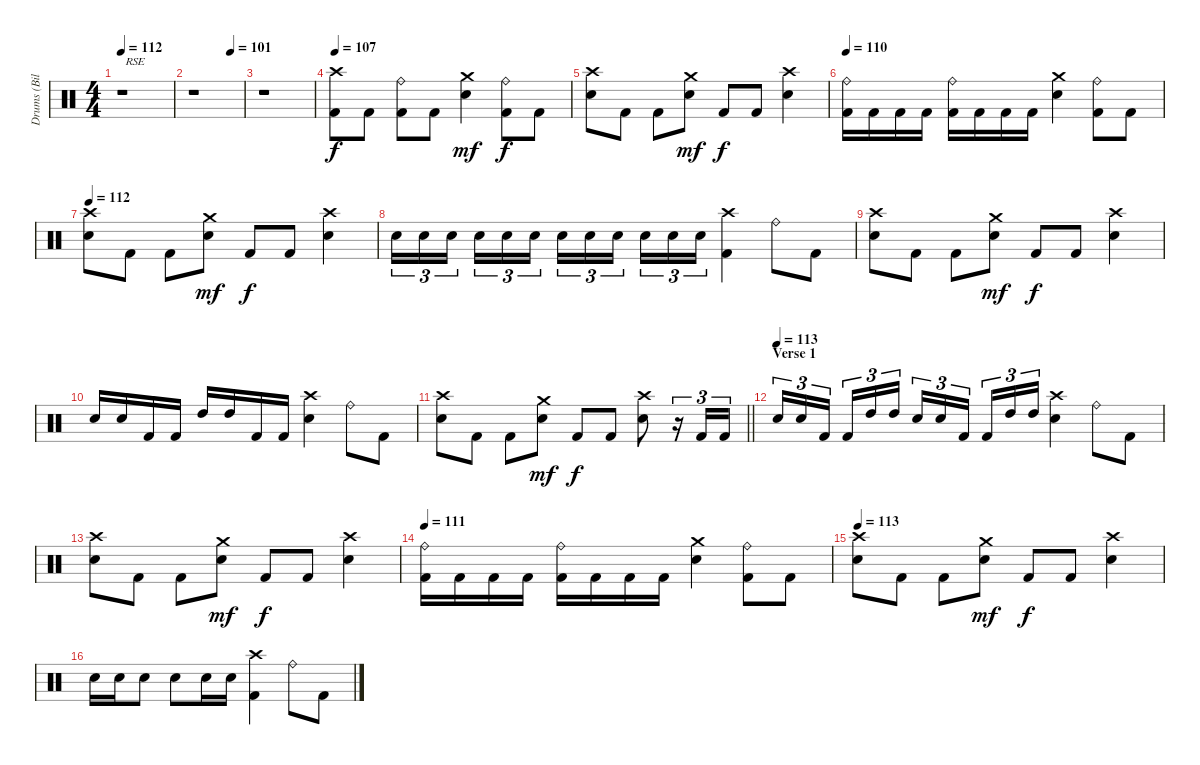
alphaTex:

\track ("Drums (Bill Andrews)" "Drums (Bil") {instrument percussion}
\staff
\articulation defaults
\ts (4 4)
\tempo 112
\clef neutral
\ks c
r.1{txt " RSE " dy f} |
\tempo (90 0.75)
\tempo (101 0.75)
r.1 |
r.1 |
\tempo 107
("Crash high (hit)" "Kick (hit) 2").8 "Kick (hit) 2".8 ("Ride (bell)" "Kick (hit) 2").8 "Kick (hit) 2".8 ("Crash medium (hit)" "Electric Snare (hit)").4{dy mf} ("Ride (bell)" "Kick (hit) 2").8{dy f} "Kick (hit) 2".8 |
("Crash high (hit)" "Electric Snare (hit)").8 "Kick (hit) 2".8 "Kick (hit) 2".8 ("Crash medium (hit)" "Electric Snare (hit)").8{dy mf} "Kick (hit) 2".8{dy f} "Kick (hit) 2".8 ("Crash high (hit)" "Electric Snare (hit)").4 |
\tempo 110
("Ride (bell)" "Kick (hit) 2").16 "Kick (hit) 2".16 "Kick (hit) 2".16 "Kick (hit) 2".16 ("Ride (bell)" "Kick (hit) 2").16 "Kick (hit) 2".16 "Kick (hit) 2".16 "Kick (hit) 2".16 ("Crash medium (hit)" "Electric Snare (hit)").4 ("Ride (bell)" "Kick (hit) 2").8 "Kick (hit) 2".8 |
\tempo 112
("Crash high (hit)" "Electric Snare (hit)").8 "Kick (hit) 2".8 "Kick (hit) 2".8 ("Crash medium (hit)" "Electric Snare (hit)").8{dy mf} "Kick (hit) 2".8{dy f} "Kick (hit) 2".8 ("Crash high (hit)" "Electric Snare (hit)").4 |
"Electric Snare (hit)".16{tu (3 2)} "Electric Snare (hit)".16{tu (3 2)} "Electric Snare (hit)".16{tu (3 2) beam splitsecondary} "Electric Snare (hit)".16{tu (3 2)} "Electric Snare (hit)".16{tu (3 2)} "Electric Snare (hit)".16{tu (3 2)} "Electric Snare (hit)".16{tu (3 2)} "Electric Snare (hit)".16{tu (3 2)} "Electric Snare (hit)".16{tu (3 2) beam splitsecondary} "Electric Snare (hit)".16{tu (3 2)} "Electric Snare (hit)".16{tu (3 2)} "Electric Snare (hit)".16{tu (3 2)} ("Crash high (hit)" "Kick (hit) 2").4 "Ride (bell)".8 "Kick (hit) 2".8 |
("Crash high (hit)" "Electric Snare (hit)").8 "Kick (hit) 2".8 "Kick (hit) 2".8 ("Crash medium (hit)" "Electric Snare (hit)").8{dy mf} "Kick (hit) 2".8{dy f} "Kick (hit) 2".8 ("Crash high (hit)" "Electric Snare (hit)").4 |
"Electric Snare (hit)".16 "Electric Snare (hit)".16 "Kick (hit) 2".16 "Kick (hit) 2".16 "High Tom (hit)".16 "High Tom (hit)".16 "Kick (hit) 2".16 "Kick (hit) 2".16 ("Crash high (hit)" "Electric Snare (hit)").4 "Ride (bell)".8 "Kick (hit) 2".8 |
\barLineRight lightlight
("Crash high (hit)" "Electric Snare (hit)").8 "Kick (hit) 2".8 "Kick (hit) 2".8 ("Crash medium (hit)" "Electric Snare (hit)").8{dy mf} "Kick (hit) 2".8{dy f} "Kick (hit) 2".8 ("Crash high (hit)" "Electric Snare (hit)").8 r.16{tu (3 2)} "Kick (hit) 2".16{tu (3 2)} "Kick (hit) 2".16{tu (3 2)} |
\section ("" "Verse 1")
\tempo (113)
"Electric Snare (hit)".16{tu (3 2)} "Electric Snare (hit)".16{tu (3 2)} "Kick (hit) 2".16{tu (3 2) beam splitsecondary} "Kick (hit) 2".16{tu (3 2)} "High Tom (hit)".16{tu (3 2)} "High Tom (hit)".16{tu (3 2)} "Electric Snare (hit)".16{tu (3 2)} "Electric Snare (hit)".16{tu (3 2)} "Kick (hit) 2".16{tu (3 2) beam splitsecondary} "Kick (hit) 2".16{tu (3 2)} "High Tom (hit)".16{tu (3 2)} "High Tom (hit)".16{tu (3 2)} ("Crash high (hit)" "Electric Snare (hit)").4 "Ride (bell)".8 "Kick (hit) 2".8 |
("Crash high (hit)" "Electric Snare (hit)").8 "Kick (hit) 2".8 "Kick (hit) 2".8 ("Crash medium (hit)" "Electric Snare (hit)").8{dy mf} "Kick (hit) 2".8{dy f} "Kick (hit) 2".8 ("Crash high (hit)" "Electric Snare (hit)").4 |
\tempo 111
("Ride (bell)" "Kick (hit) 2").16 "Kick (hit) 2".16 "Kick (hit) 2".16 "Kick (hit) 2".16 ("Ride (bell)" "Kick (hit) 2").16 "Kick (hit) 2".16 "Kick (hit) 2".16 "Kick (hit) 2".16 ("Crash medium (hit)" "Electric Snare (hit)").4 ("Ride (bell)" "Kick (hit) 2").8 "Kick (hit) 2".8 |
\tempo 113
("Crash high (hit)" "Electric Snare (hit)").8 "Kick (hit) 2".8 "Kick (hit) 2".8 ("Crash medium (hit)" "Electric Snare (hit)").8{dy mf} "Kick (hit) 2".8{dy f} "Kick (hit) 2".8 ("Crash high (hit)" "Electric Snare (hit)").4 |
"Electric Snare (hit)".16 "Electric Snare (hit)".16 "Electric Snare (hit)".8 "Electric Snare (hit)".8 "Electric Snare (hit)".16 "Electric Snare (hit)".16 ("Crash high (hit)" "Kick (hit) 2").4 "Ride (bell)".8 "Kick (hit) 2".8
